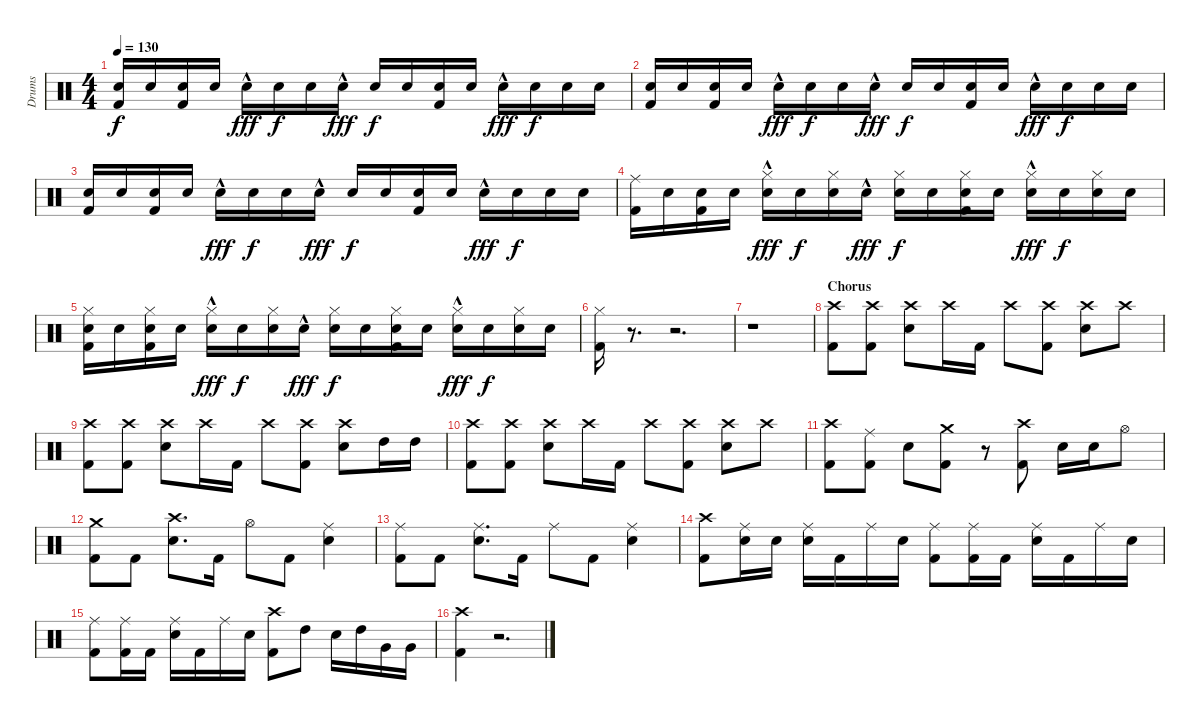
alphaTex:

\track ("Drums" "Drums") {instrument percussion}
\staff {score}
\articulation defaults
\ts (4 4)
\tempo 130
\clef neutral
\ks c
("Snare (hit) 2" "Kick (hit) 2").16{dy f} "Snare (hit) 2".16 ("Snare (hit) 2" "Kick (hit) 2").16 "Snare (hit) 2".16 "Snare (hit) 2"{hac}.16{dy fff} "Snare (hit) 2".16{dy f} "Snare (hit) 2".16 "Snare (hit) 2"{hac}.16{dy fff} "Snare (hit) 2".16{dy f} "Snare (hit) 2".16 ("Snare (hit) 2" "Kick (hit) 2").16 "Snare (hit) 2".16 "Snare (hit) 2"{hac}.16{dy fff} "Snare (hit) 2".16{dy f} "Snare (hit) 2".16 "Snare (hit) 2".16 |
("Snare (hit) 2" "Kick (hit) 2").16 "Snare (hit) 2".16 ("Snare (hit) 2" "Kick (hit) 2").16 "Snare (hit) 2".16 "Snare (hit) 2"{hac}.16{dy fff} "Snare (hit) 2".16{dy f} "Snare (hit) 2".16 "Snare (hit) 2"{hac}.16{dy fff} "Snare (hit) 2".16{dy f} "Snare (hit) 2".16 ("Snare (hit) 2" "Kick (hit) 2").16 "Snare (hit) 2".16 "Snare (hit) 2"{hac}.16{dy fff} "Snare (hit) 2".16{dy f} "Snare (hit) 2".16 "Snare (hit) 2".16 |
("Snare (hit) 2" "Kick (hit) 2").16 "Snare (hit) 2".16 ("Snare (hit) 2" "Kick (hit) 2").16 "Snare (hit) 2".16 "Snare (hit) 2"{hac}.16{dy fff} "Snare (hit) 2".16{dy f} "Snare (hit) 2".16 "Snare (hit) 2"{hac}.16{dy fff} "Snare (hit) 2".16{dy f} "Snare (hit) 2".16 ("Snare (hit) 2" "Kick (hit) 2").16 "Snare (hit) 2".16 "Snare (hit) 2"{hac}.16{dy fff} "Snare (hit) 2".16{dy f} "Snare (hit) 2".16 "Snare (hit) 2".16 |
("Ride (middle)" "Kick (hit) 2").16 "Snare (hit) 2".16 ("Snare (hit) 2" "Kick (hit) 2").16 "Snare (hit) 2".16 ("Hi-Hat (closed)" "Snare (hit) 2"{hac}).16{dy fff} "Snare (hit) 2".16{dy f} ("Hi-Hat (closed)" "Snare (hit) 2").16 "Snare (hit) 2"{hac}.16{dy fff} ("Hi-Hat (closed)" "Snare (hit) 2").16{dy f} "Snare (hit) 2".16 ("Hi-Hat (closed)" "Snare (hit) 2" "Kick (hit) 2").16 "Snare (hit) 2".16 ("Hi-Hat (closed)" "Snare (hit) 2"{hac}).16{dy fff} "Snare (hit) 2".16{dy f} ("Hi-Hat (closed)" "Snare (hit) 2").16 "Snare (hit) 2".16 |
("Hi-Hat (closed)" "Snare (hit) 2" "Kick (hit) 2").16 "Snare (hit) 2".16 ("Hi-Hat (closed)" "Snare (hit) 2" "Kick (hit) 2").16 "Snare (hit) 2".16 ("Hi-Hat (closed)" "Snare (hit) 2"{hac}).16{dy fff} "Snare (hit) 2".16{dy f} ("Hi-Hat (closed)" "Snare (hit) 2").16 "Snare (hit) 2"{hac}.16{dy fff} ("Hi-Hat (closed)" "Snare (hit) 2").16{dy f} "Snare (hit) 2".16 ("Hi-Hat (closed)" "Snare (hit) 2" "Kick (hit) 2").16 "Snare (hit) 2".16 ("Hi-Hat (closed)" "Snare (hit) 2"{hac}).16{dy fff} "Snare (hit) 2".16{dy f} ("Hi-Hat (closed)" "Snare (hit) 2").16 "Snare (hit) 2".16 |
("Hi-Hat (closed)" "Kick (hit) 2").16 r.8{d} r.2{d} |
r.1 |
\section ("" "Chorus")
("Crash high (hit)" "Kick (hit) 2").8 ("Crash high (hit)" "Kick (hit) 2").8 ("Crash high (hit)" "Snare (hit) 2").8 "Crash high (hit)".16 "Kick (hit) 2".16 "Crash high (hit)".8 ("Crash high (hit)" "Kick (hit) 2").8 ("Crash high (hit)" "Snare (hit) 2").8 "Crash high (hit)".8 |
("Crash high (hit)" "Kick (hit) 2").8 ("Crash high (hit)" "Kick (hit) 2").8 ("Crash high (hit)" "Snare (hit) 2").8 "Crash high (hit)".16 "Kick (hit) 2".16 "Crash high (hit)".8 ("Crash high (hit)" "Kick (hit) 2").8 ("Crash high (hit)" "Snare (hit) 2").8 "High Tom (hit)".16 "High Tom (hit)".16 |
("Crash high (hit)" "Kick (hit) 2").8 ("Crash high (hit)" "Kick (hit) 2").8 ("Crash high (hit)" "Snare (hit) 2").8 "Crash high (hit)".16 "Kick (hit) 2".16 "Crash high (hit)".8 ("Crash high (hit)" "Kick (hit) 2").8 ("Crash high (hit)" "Snare (hit) 2").8 "Crash high (hit)".8 |
("Crash high (hit)" "Kick (hit) 2").8 ("Ride (middle)" "Kick (hit) 2").8 "Snare (hit) 2".8 ("Crash medium (hit)" "Kick (hit) 2").8 r.8 ("Crash high (hit)" "Kick (hit) 2").8 "Snare (hit) 2".16 "Snare (hit) 2".16 "Hi-Hat (open)".8 |
("Crash medium (hit)" "Kick (hit) 2").8 "Kick (hit) 2".8 ("Crash high (hit)" "Snare (hit) 2").8{d} "Kick (hit) 2".16 "Hi-Hat (open)".8 "Kick (hit) 2".8 ("Ride (middle)" "Snare (hit) 2").4 |
("Ride (middle)" "Kick (hit) 2").8 "Kick (hit) 2".8 ("Ride (middle)" "Snare (hit) 2").8{d} "Kick (hit) 2".16 "Ride (middle)".8 "Kick (hit) 2".8 ("Ride (middle)" "Snare (hit) 2").4 |
("Crash high (hit)" "Kick (hit) 2").8 ("Ride (middle)" "Snare (hit) 2").16 "Snare (hit) 2".16 ("Ride (middle)" "Snare (hit) 2").16 "Kick (hit) 2".16 "Ride (middle)".16 "Snare (hit) 2".16 ("Ride (middle)" "Kick (hit) 2").8 ("Ride (middle)" "Kick (hit) 2").16 "Kick (hit) 2".16 ("Ride (middle)" "Snare (hit) 2").16 "Kick (hit) 2".16 "Ride (middle)".16 "Snare (hit) 2".16 |
("Ride (middle)" "Kick (hit) 2").8 ("Ride (middle)" "Kick (hit) 2").16 "Kick (hit) 2".16 ("Ride (middle)" "Snare (hit) 2").16 "Kick (hit) 2".16 "Ride (middle)".16 "Snare (hit) 2".16 ("Crash high (hit)" "Kick (hit) 2").8 "High Tom (hit)".8 "Snare (hit) 2".16 "High Tom (hit)".16 "Very Low Tom (hit)".16 "Very Low Tom (hit)".16 |
("Crash high (hit)" "Kick (hit) 2").4 r.2{d}
